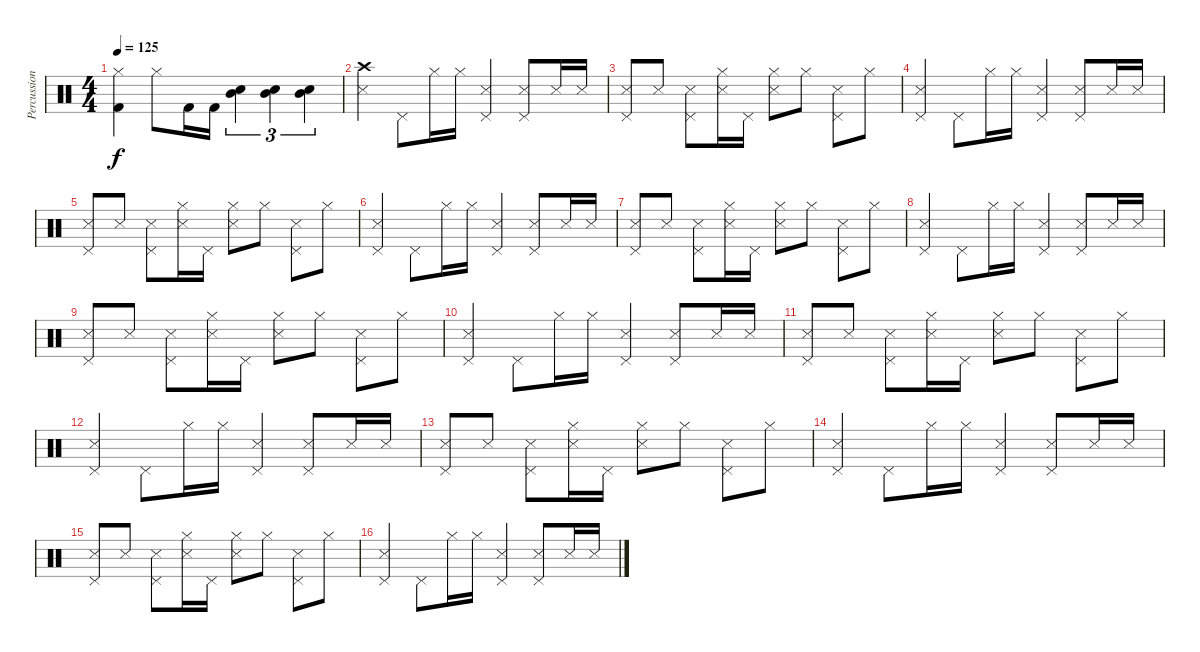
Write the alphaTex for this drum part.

\track ("Percussioni" "Percussion") {instrument percussion}
\staff {score}
\articulation defaults
\ts (4 4)
\tempo 125
\clef neutral
\ks c
("Hi-Hat (closed)" "Kick (hit) 2").4{dy f} "Hi-Hat (closed)".8 "Kick (hit) 2".16 "Kick (hit) 2".16 ("Snare (hit) 2" "Mid Tom (hit)").4{tu (3 2)} ("Snare (hit) 2" "Mid Tom (hit)").4{tu (3 2)} ("Snare (hit) 2" "Mid Tom (hit)").4{tu (3 2)} |
("Crash high (hit)" "Snare (side stick) 3").4{volume 5} "Pedal Hi-Hat (hit)".8 "Hi-Hat (closed)".16 "Hi-Hat (closed)".16 ("Pedal Hi-Hat (hit)" "Snare (side stick) 3").4 ("Pedal Hi-Hat (hit)" "Snare (side stick) 3").8 "Snare (side stick) 3".16 "Snare (side stick) 3".16 |
("Pedal Hi-Hat (hit)" "Snare (side stick) 3").8 "Snare (side stick) 3".8 ("Pedal Hi-Hat (hit)" "Snare (side stick) 3").8 ("Hi-Hat (closed)" "Snare (side stick) 3").16 "Pedal Hi-Hat (hit)".16 ("Hi-Hat (closed)" "Snare (side stick) 3").8 "Hi-Hat (closed)".8 ("Pedal Hi-Hat (hit)" "Snare (side stick) 3").8 "Hi-Hat (closed)".8 |
("Pedal Hi-Hat (hit)" "Snare (side stick) 3").4 "Pedal Hi-Hat (hit)".8 "Hi-Hat (closed)".16 "Hi-Hat (closed)".16 ("Pedal Hi-Hat (hit)" "Snare (side stick) 3").4 ("Pedal Hi-Hat (hit)" "Snare (side stick) 3").8 "Snare (side stick) 3".16 "Snare (side stick) 3".16 |
("Pedal Hi-Hat (hit)" "Snare (side stick) 3").8 "Snare (side stick) 3".8 ("Pedal Hi-Hat (hit)" "Snare (side stick) 3").8 ("Hi-Hat (closed)" "Snare (side stick) 3").16 "Pedal Hi-Hat (hit)".16 ("Hi-Hat (closed)" "Snare (side stick) 3").8 "Hi-Hat (closed)".8 ("Pedal Hi-Hat (hit)" "Snare (side stick) 3").8 "Hi-Hat (closed)".8 |
("Pedal Hi-Hat (hit)" "Snare (side stick) 3").4 "Pedal Hi-Hat (hit)".8 "Hi-Hat (closed)".16 "Hi-Hat (closed)".16 ("Pedal Hi-Hat (hit)" "Snare (side stick) 3").4 ("Pedal Hi-Hat (hit)" "Snare (side stick) 3").8 "Snare (side stick) 3".16 "Snare (side stick) 3".16 |
("Pedal Hi-Hat (hit)" "Snare (side stick) 3").8 "Snare (side stick) 3".8 ("Pedal Hi-Hat (hit)" "Snare (side stick) 3").8 ("Hi-Hat (closed)" "Snare (side stick) 3").16 "Pedal Hi-Hat (hit)".16 ("Hi-Hat (closed)" "Snare (side stick) 3").8 "Hi-Hat (closed)".8 ("Pedal Hi-Hat (hit)" "Snare (side stick) 3").8 "Hi-Hat (closed)".8 |
("Pedal Hi-Hat (hit)" "Snare (side stick) 3").4 "Pedal Hi-Hat (hit)".8 "Hi-Hat (closed)".16 "Hi-Hat (closed)".16 ("Pedal Hi-Hat (hit)" "Snare (side stick) 3").4 ("Pedal Hi-Hat (hit)" "Snare (side stick) 3").8 "Snare (side stick) 3".16 "Snare (side stick) 3".16 |
("Pedal Hi-Hat (hit)" "Snare (side stick) 3").8 "Snare (side stick) 3".8 ("Pedal Hi-Hat (hit)" "Snare (side stick) 3").8 ("Hi-Hat (closed)" "Snare (side stick) 3").16 "Pedal Hi-Hat (hit)".16 ("Hi-Hat (closed)" "Snare (side stick) 3").8 "Hi-Hat (closed)".8 ("Pedal Hi-Hat (hit)" "Snare (side stick) 3").8 "Hi-Hat (closed)".8 |
("Pedal Hi-Hat (hit)" "Snare (side stick) 3").4 "Pedal Hi-Hat (hit)".8 "Hi-Hat (closed)".16 "Hi-Hat (closed)".16 ("Pedal Hi-Hat (hit)" "Snare (side stick) 3").4 ("Pedal Hi-Hat (hit)" "Snare (side stick) 3").8 "Snare (side stick) 3".16 "Snare (side stick) 3".16 |
("Pedal Hi-Hat (hit)" "Snare (side stick) 3").8 "Snare (side stick) 3".8 ("Pedal Hi-Hat (hit)" "Snare (side stick) 3").8 ("Hi-Hat (closed)" "Snare (side stick) 3").16 "Pedal Hi-Hat (hit)".16 ("Hi-Hat (closed)" "Snare (side stick) 3").8 "Hi-Hat (closed)".8 ("Pedal Hi-Hat (hit)" "Snare (side stick) 3").8 "Hi-Hat (closed)".8 |
("Pedal Hi-Hat (hit)" "Snare (side stick) 3").4 "Pedal Hi-Hat (hit)".8 "Hi-Hat (closed)".16 "Hi-Hat (closed)".16 ("Pedal Hi-Hat (hit)" "Snare (side stick) 3").4 ("Pedal Hi-Hat (hit)" "Snare (side stick) 3").8 "Snare (side stick) 3".16 "Snare (side stick) 3".16 |
("Pedal Hi-Hat (hit)" "Snare (side stick) 3").8 "Snare (side stick) 3".8 ("Pedal Hi-Hat (hit)" "Snare (side stick) 3").8 ("Hi-Hat (closed)" "Snare (side stick) 3").16 "Pedal Hi-Hat (hit)".16 ("Hi-Hat (closed)" "Snare (side stick) 3").8 "Hi-Hat (closed)".8 ("Pedal Hi-Hat (hit)" "Snare (side stick) 3").8 "Hi-Hat (closed)".8 |
("Pedal Hi-Hat (hit)" "Snare (side stick) 3").4 "Pedal Hi-Hat (hit)".8 "Hi-Hat (closed)".16 "Hi-Hat (closed)".16 ("Pedal Hi-Hat (hit)" "Snare (side stick) 3").4 ("Pedal Hi-Hat (hit)" "Snare (side stick) 3").8 "Snare (side stick) 3".16 "Snare (side stick) 3".16 |
("Pedal Hi-Hat (hit)" "Snare (side stick) 3").8 "Snare (side stick) 3".8 ("Pedal Hi-Hat (hit)" "Snare (side stick) 3").8 ("Hi-Hat (closed)" "Snare (side stick) 3").16 "Pedal Hi-Hat (hit)".16 ("Hi-Hat (closed)" "Snare (side stick) 3").8 "Hi-Hat (closed)".8 ("Pedal Hi-Hat (hit)" "Snare (side stick) 3").8 "Hi-Hat (closed)".8 |
("Pedal Hi-Hat (hit)" "Snare (side stick) 3").4 "Pedal Hi-Hat (hit)".8 "Hi-Hat (closed)".16 "Hi-Hat (closed)".16 ("Pedal Hi-Hat (hit)" "Snare (side stick) 3").4 ("Pedal Hi-Hat (hit)" "Snare (side stick) 3").8 "Snare (side stick) 3".16 "Snare (side stick) 3".16
